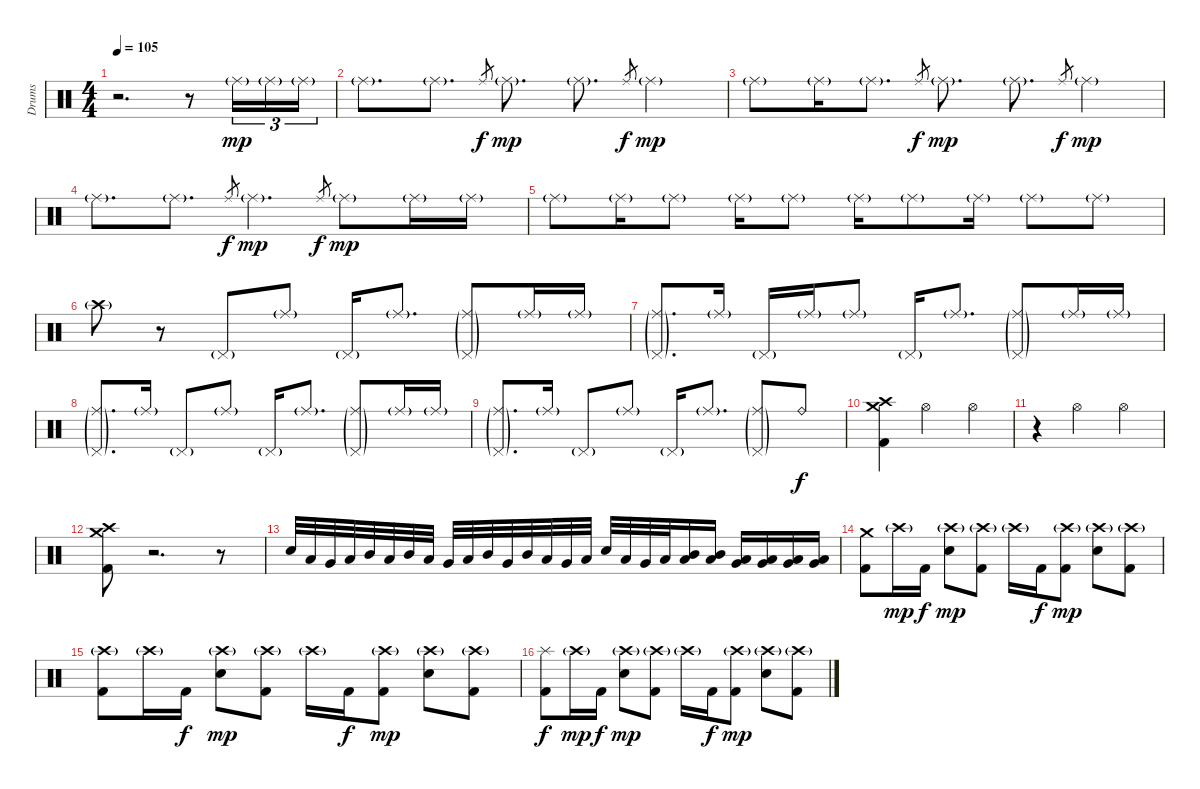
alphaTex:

\track ("Drums" "Drums") {instrument percussion}
\staff {score}
\articulation defaults
\ts (4 4)
\tempo 105
\clef neutral
\ks c
r.2{d dy f} r.8 "Ride (middle)"{g}.16{tu (3 2) dy mp} "Ride (middle)"{g}.16{tu (3 2)} "Ride (middle)"{g}.16{tu (3 2)} |
"Ride (middle)"{g}.8{d} "Ride (middle)"{g}.8{d} "Ride (middle)".8{gr dy f} "Ride (middle)"{g}.8{d dy mp} "Ride (middle)"{g}.8{d} "Ride (middle)".8{gr dy f} "Ride (middle)"{g}.4{dy mp} |
"Ride (middle)"{g}.8 "Ride (middle)"{g}.16 "Ride (middle)"{g}.8{d} "Ride (middle)".8{gr dy f} "Ride (middle)"{g}.8{d dy mp} "Ride (middle)"{g}.8{d} "Ride (middle)".8{gr dy f} "Ride (middle)"{g}.4{dy mp} |
"Ride (middle)"{g}.8{d} "Ride (middle)"{g}.8{d} "Ride (middle)".8{gr dy f} "Ride (middle)"{g}.4{d dy mp} "Ride (middle)".8{gr dy f} "Ride (middle)"{g}.8{dy mp} "Ride (middle)"{g}.16 "Ride (middle)"{g}.16 |
"Ride (middle)"{g}.8 "Ride (middle)"{g}.16 "Ride (middle)"{g}.8 "Ride (middle)"{g}.16 "Ride (middle)"{g}.8 "Ride (middle)"{g}.16 "Ride (middle)"{g}.8 "Ride (middle)"{g}.16 "Ride (middle)"{g}.8 "Ride (middle)"{g}.8 |
"Crash high (hit)"{g}.8 r.8 "Pedal Hi-Hat (hit)"{g}.8 "Ride (middle)"{g}.8 "Pedal Hi-Hat (hit)"{g}.16 "Ride (middle)"{g}.8{d} ("Ride (middle)"{g} "Pedal Hi-Hat (hit)"{g}).8 "Ride (middle)"{g}.16 "Ride (middle)"{g}.16 |
("Ride (middle)"{g} "Pedal Hi-Hat (hit)"{g}).8{d} "Ride (middle)"{g}.16 "Pedal Hi-Hat (hit)"{g}.16 "Ride (middle)"{g}.16 "Ride (middle)"{g}.8 "Pedal Hi-Hat (hit)"{g}.16 "Ride (middle)"{g}.8{d} ("Ride (middle)"{g} "Pedal Hi-Hat (hit)"{g}).8 "Ride (middle)"{g}.16 "Ride (middle)"{g}.16 |
("Ride (middle)"{g} "Pedal Hi-Hat (hit)"{g}).8{d} "Ride (middle)"{g}.16 "Pedal Hi-Hat (hit)"{g}.8 "Ride (middle)"{g}.8 "Pedal Hi-Hat (hit)"{g}.16 "Ride (middle)"{g}.8{d} ("Ride (middle)"{g} "Pedal Hi-Hat (hit)"{g}).8 "Ride (middle)"{g}.16 "Ride (middle)"{g}.16 |
("Ride (middle)"{g} "Pedal Hi-Hat (hit)"{g}).8{d} "Ride (middle)"{g}.16 "Pedal Hi-Hat (hit)"{g}.8 "Ride (middle)"{g}.8 "Pedal Hi-Hat (hit)"{g}.16 "Ride (middle)"{g}.8{d} ("Ride (middle)"{g} "Pedal Hi-Hat (hit)"{g}).8 "Ride (bell)".8{dy f} |
("Crash medium (hit)" "Crash high (hit)" "Kick (hit) 2").4 "Hi-Hat (open)".2 "Hi-Hat (open)".4 |
r.4 "Hi-Hat (open)".2 "Hi-Hat (open)".4 |
("Crash medium (hit)" "Crash high (hit)" "Kick (hit) 2").8{volume 16} r.2{d volume 0} r.8 |
"Snare (hit) 2".32{volume 13} "Low Floor Tom (hit)".32 "Very Low Tom (hit)".32 "Low Floor Tom (hit)".32 "Mid Tom (hit)".32 "Low Floor Tom (hit)".32 "Mid Tom (hit)".32 "Low Floor Tom (hit)".32 "Very Low Tom (hit)".32 "Low Floor Tom (hit)".32 "Mid Tom (hit)".32 "Very Low Tom (hit)".32 "Mid Tom (hit)".32 "Low Tom (hit)".32 "Very Low Tom (hit)".32 "Low Floor Tom (hit)".32 "Snare (hit) 2".32 "Low Floor Tom (hit)".32 "Very Low Tom (hit)".32 "Low Floor Tom (hit)".32 ("Mid Tom (hit)" "Low Tom (hit)").16 ("Mid Tom (hit)" "Low Tom (hit)").16 ("Low Tom (hit)" "Very Low Tom (hit)").16 ("Low Tom (hit)" "Very Low Tom (hit)").16 ("Very Low Tom (hit)" "Low Floor Tom (hit)").16 ("Very Low Tom (hit)" "Low Floor Tom (hit)").16 |
("Crash medium (hit)" "Kick (hit) 2").8 "Crash high (hit)"{g}.16{dy mp} "Kick (hit) 2".16{dy f} ("Crash high (hit)"{g} "Snare (hit) 2").8{dy mp} ("Crash high (hit)"{g} "Kick (hit) 2").8 "Crash high (hit)"{g}.16 "Kick (hit) 2".16{dy f} ("Crash high (hit)"{g} "Kick (hit) 2").8{dy mp} ("Crash high (hit)"{g} "Snare (hit) 2").8 ("Crash high (hit)"{g} "Kick (hit) 2").8 |
("Crash high (hit)"{g} "Kick (hit) 2").8 "Crash high (hit)"{g}.16 "Kick (hit) 2".16{dy f} ("Crash high (hit)"{g} "Snare (hit) 2").8{dy mp} ("Crash high (hit)"{g} "Kick (hit) 2").8 "Crash high (hit)"{g}.16 "Kick (hit) 2".16{dy f} ("Crash high (hit)"{g} "Kick (hit) 2").8{dy mp} ("Crash high (hit)"{g} "Snare (hit) 2").8 ("Crash high (hit)"{g} "Kick (hit) 2").8 |
("Splash (hit)" "Kick (hit) 2").8{dy f} "Crash high (hit)"{g}.16{dy mp} "Kick (hit) 2".16{dy f} ("Crash high (hit)"{g} "Snare (hit) 2").8{dy mp} ("Crash high (hit)"{g} "Kick (hit) 2").8 "Crash high (hit)"{g}.16 "Kick (hit) 2".16{dy f} ("Crash high (hit)"{g} "Kick (hit) 2").8{dy mp} ("Crash high (hit)"{g} "Snare (hit) 2").8 ("Crash high (hit)"{g} "Kick (hit) 2").8
